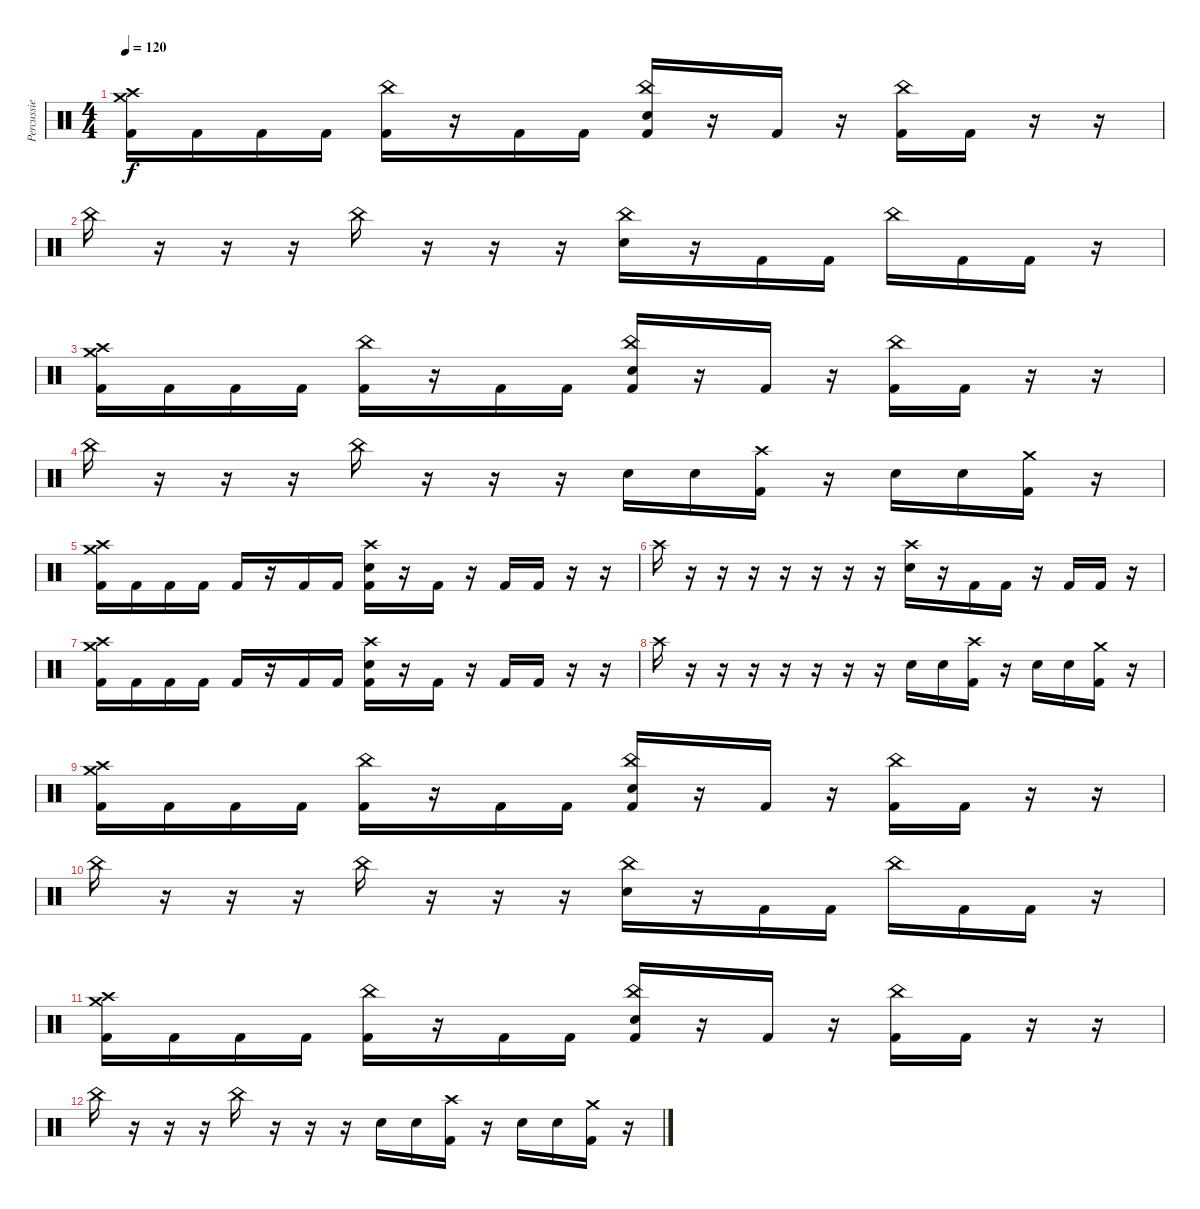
\track ("Percussie" "Percussie") {instrument percussion}
\staff {score}
\articulation defaults
\ts (4 4)
\tempo 120
\clef neutral
\ks c
("Crash medium (hit)" "Crash high (hit)" "Kick (hit) 2").16{dy f} "Kick (hit) 2".16 "Kick (hit) 2".16 "Kick (hit) 2".16 ("China (hit)" "Kick (hit) 2").16 r.16 "Kick (hit) 2".16 "Kick (hit) 2".16 ("China (hit)" "Electric Snare (hit)" "Kick (hit) 2").16 r.16 "Kick (hit) 2".16 r.16 ("China (hit)" "Kick (hit) 2").16 "Kick (hit) 2".16 r.16 r.16 |
"China (hit)".16 r.16 r.16 r.16 "China (hit)".16 r.16 r.16 r.16 ("China (hit)" "Electric Snare (hit)").16 r.16 "Kick (hit) 2".16 "Kick (hit) 2".16 "China (hit)".16 "Kick (hit) 2".16 "Kick (hit) 2".16 r.16 |
("Crash medium (hit)" "Crash high (hit)" "Kick (hit) 2").16 "Kick (hit) 2".16 "Kick (hit) 2".16 "Kick (hit) 2".16 ("China (hit)" "Kick (hit) 2").16 r.16 "Kick (hit) 2".16 "Kick (hit) 2".16 ("China (hit)" "Electric Snare (hit)" "Kick (hit) 2").16 r.16 "Kick (hit) 2".16 r.16 ("China (hit)" "Kick (hit) 2").16 "Kick (hit) 2".16 r.16 r.16 |
"China (hit)".16 r.16 r.16 r.16 "China (hit)".16 r.16 r.16 r.16 "Electric Snare (hit)".16 "Electric Snare (hit)".16 ("Crash high (hit)" "Kick (hit) 2").16 r.16 "Electric Snare (hit)".16 "Electric Snare (hit)".16 ("Crash medium (hit)" "Kick (hit) 2").16 r.16 |
("Crash medium (hit)" "Crash high (hit)" "Kick (hit) 2").16 "Kick (hit) 2".16 "Kick (hit) 2".16 "Kick (hit) 2".16 "Kick (hit) 2".16 r.16 "Kick (hit) 2".16 "Kick (hit) 2".16 ("Crash high (hit)" "Electric Snare (hit)" "Kick (hit) 2").16 r.16 "Kick (hit) 2".16 r.16 "Kick (hit) 2".16 "Kick (hit) 2".16 r.16 r.16 |
"Crash high (hit)".16 r.16 r.16 r.16 r.16 r.16 r.16 r.16 ("Crash high (hit)" "Electric Snare (hit)").16 r.16 "Kick (hit) 2".16 "Kick (hit) 2".16 r.16 "Kick (hit) 2".16 "Kick (hit) 2".16 r.16 |
("Crash medium (hit)" "Crash high (hit)" "Kick (hit) 2").16 "Kick (hit) 2".16 "Kick (hit) 2".16 "Kick (hit) 2".16 "Kick (hit) 2".16 r.16 "Kick (hit) 2".16 "Kick (hit) 2".16 ("Crash high (hit)" "Electric Snare (hit)" "Kick (hit) 2").16 r.16 "Kick (hit) 2".16 r.16 "Kick (hit) 2".16 "Kick (hit) 2".16 r.16 r.16 |
"Crash high (hit)".16 r.16 r.16 r.16 r.16 r.16 r.16 r.16 "Electric Snare (hit)".16 "Electric Snare (hit)".16 ("Crash high (hit)" "Kick (hit) 2").16 r.16 "Electric Snare (hit)".16 "Electric Snare (hit)".16 ("Crash medium (hit)" "Kick (hit) 2").16 r.16 |
("Crash medium (hit)" "Crash high (hit)" "Kick (hit) 2").16 "Kick (hit) 2".16 "Kick (hit) 2".16 "Kick (hit) 2".16 ("China (hit)" "Kick (hit) 2").16 r.16 "Kick (hit) 2".16 "Kick (hit) 2".16 ("China (hit)" "Electric Snare (hit)" "Kick (hit) 2").16 r.16 "Kick (hit) 2".16 r.16 ("China (hit)" "Kick (hit) 2").16 "Kick (hit) 2".16 r.16 r.16 |
"China (hit)".16 r.16 r.16 r.16 "China (hit)".16 r.16 r.16 r.16 ("China (hit)" "Electric Snare (hit)").16 r.16 "Kick (hit) 2".16 "Kick (hit) 2".16 "China (hit)".16 "Kick (hit) 2".16 "Kick (hit) 2".16 r.16 |
("Crash medium (hit)" "Crash high (hit)" "Kick (hit) 2").16 "Kick (hit) 2".16 "Kick (hit) 2".16 "Kick (hit) 2".16 ("China (hit)" "Kick (hit) 2").16 r.16 "Kick (hit) 2".16 "Kick (hit) 2".16 ("China (hit)" "Electric Snare (hit)" "Kick (hit) 2").16 r.16 "Kick (hit) 2".16 r.16 ("China (hit)" "Kick (hit) 2").16 "Kick (hit) 2".16 r.16 r.16 |
"China (hit)".16 r.16 r.16 r.16 "China (hit)".16 r.16 r.16 r.16 "Electric Snare (hit)".16 "Electric Snare (hit)".16 ("Crash high (hit)" "Kick (hit) 2").16 r.16 "Electric Snare (hit)".16 "Electric Snare (hit)".16 ("Crash medium (hit)" "Kick (hit) 2").16 r.16
